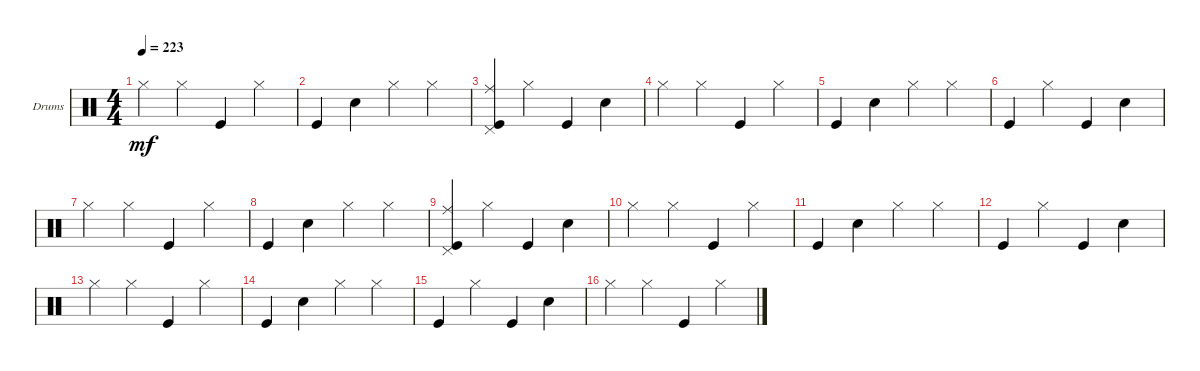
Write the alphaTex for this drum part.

\defaultSystemsLayout 4
\bracketExtendMode groupsimilarinstruments
\firstSystemTrackNameOrientation horizontal
\otherSystemsTrackNameOrientation horizontal
\track ("Drumkit" "Drums") {instrument percussion}
\staff {score}
\articulation defaults
\ts (4 4)
\tempo 223
\clef neutral
\ks c "Hi-Hat (closed)".4{dy mf} "Hi-Hat (closed)".4 "Kick (hit)".4 "Hi-Hat (closed)".4
|
"Kick (hit)".4 "Snare (hit) 2".4 "Hi-Hat (closed)".4 "Hi-Hat (closed)".4 |
("Kick (hit)" "Ride (middle)" "Pedal Hi-Hat (hit)").4 "Hi-Hat (closed)".4 "Kick (hit)".4 "Snare (hit) 2".4 |
"Hi-Hat (closed)".4 "Hi-Hat (closed)".4 "Kick (hit)".4 "Hi-Hat (closed)".4 |
"Kick (hit)".4 "Snare (hit) 2".4 "Hi-Hat (closed)".4 "Hi-Hat (closed)".4 |
"Kick (hit)".4 "Hi-Hat (closed)".4 "Kick (hit)".4 "Snare (hit) 2".4 |
"Hi-Hat (closed)".4 "Hi-Hat (closed)".4 "Kick (hit)".4 "Hi-Hat (closed)".4 |
"Kick (hit)".4 "Snare (hit) 2".4 "Hi-Hat (closed)".4 "Hi-Hat (closed)".4 |
("Kick (hit)" "Ride (middle)" "Pedal Hi-Hat (hit)").4 "Hi-Hat (closed)".4 "Kick (hit)".4 "Snare (hit) 2".4 |
"Hi-Hat (closed)".4 "Hi-Hat (closed)".4 "Kick (hit)".4 "Hi-Hat (closed)".4 |
"Kick (hit)".4 "Snare (hit) 2".4 "Hi-Hat (closed)".4 "Hi-Hat (closed)".4 |
"Kick (hit)".4 "Hi-Hat (closed)".4 "Kick (hit)".4 "Snare (hit) 2".4 |
"Hi-Hat (closed)".4 "Hi-Hat (closed)".4 "Kick (hit)".4 "Hi-Hat (closed)".4 |
"Kick (hit)".4 "Snare (hit) 2".4 "Hi-Hat (closed)".4 "Hi-Hat (closed)".4 |
"Kick (hit)".4 "Hi-Hat (closed)".4 "Kick (hit)".4 "Snare (hit) 2".4 |
"Hi-Hat (closed)".4 "Hi-Hat (closed)".4 "Kick (hit)".4 "Hi-Hat (closed)".4
